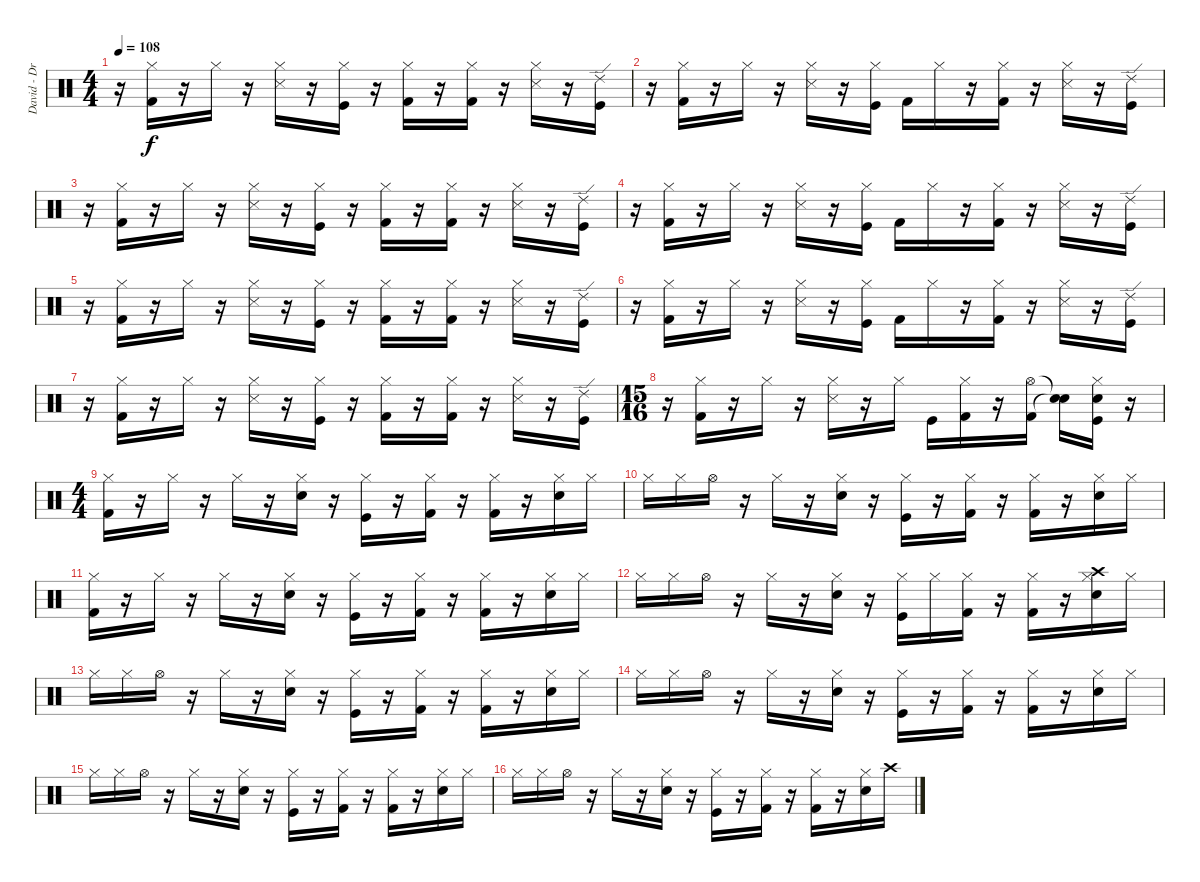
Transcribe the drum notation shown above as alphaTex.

\track ("David - Drums" "David - Dr") {instrument percussion}
\staff {score}
\articulation defaults
\ts (4 4)
\tempo 108
\clef neutral
\ks c
r.16{dy f} ("Hi-Hat (closed)" "Kick (hit) 2").16 r.16 "Hi-Hat (closed)".16 r.16 ("Hi-Hat (closed)" "Snare (side stick) 3").16 r.16 ("Hi-Hat (closed)" "Kick (hit)").16 r.16 ("Hi-Hat (closed)" "Kick (hit) 2").16 r.16 ("Hi-Hat (closed)" "Kick (hit) 2").16 r.16 ("Hi-Hat (closed)" "Snare (side stick) 3").16 r.16 ("Ride (edge) 2" "Kick (hit)").16 |
r.16 ("Hi-Hat (closed)" "Kick (hit) 2").16 r.16 "Hi-Hat (closed)".16 r.16 ("Hi-Hat (closed)" "Snare (side stick) 3").16 r.16 ("Hi-Hat (closed)" "Kick (hit)").16 "Kick (hit) 2".16 "Hi-Hat (closed)".16 r.16 ("Hi-Hat (closed)" "Kick (hit) 2").16 r.16 ("Hi-Hat (closed)" "Snare (side stick) 3").16 r.16 ("Ride (edge) 2" "Kick (hit)").16 |
r.16 ("Hi-Hat (closed)" "Kick (hit) 2").16 r.16 "Hi-Hat (closed)".16 r.16 ("Hi-Hat (closed)" "Snare (side stick) 3").16 r.16 ("Hi-Hat (closed)" "Kick (hit)").16 r.16 ("Hi-Hat (closed)" "Kick (hit) 2").16 r.16 ("Hi-Hat (closed)" "Kick (hit) 2").16 r.16 ("Hi-Hat (closed)" "Snare (side stick) 3").16 r.16 ("Ride (edge) 2" "Kick (hit)").16 |
r.16 ("Hi-Hat (closed)" "Kick (hit) 2").16 r.16 "Hi-Hat (closed)".16 r.16 ("Hi-Hat (closed)" "Snare (side stick) 3").16 r.16 ("Hi-Hat (closed)" "Kick (hit)").16 "Kick (hit) 2".16 "Hi-Hat (closed)".16 r.16 ("Hi-Hat (closed)" "Kick (hit) 2").16 r.16 ("Hi-Hat (closed)" "Snare (side stick) 3").16 r.16 ("Ride (edge) 2" "Kick (hit)").16 |
r.16 ("Hi-Hat (closed)" "Kick (hit) 2").16 r.16 "Hi-Hat (closed)".16 r.16 ("Hi-Hat (closed)" "Snare (side stick) 3").16 r.16 ("Hi-Hat (closed)" "Kick (hit)").16 r.16 ("Hi-Hat (closed)" "Kick (hit) 2").16 r.16 ("Hi-Hat (closed)" "Kick (hit) 2").16 r.16 ("Hi-Hat (closed)" "Snare (side stick) 3").16 r.16 ("Ride (edge) 2" "Kick (hit)").16 |
r.16 ("Hi-Hat (closed)" "Kick (hit) 2").16 r.16 "Hi-Hat (closed)".16 r.16 ("Hi-Hat (closed)" "Snare (side stick) 3").16 r.16 ("Hi-Hat (closed)" "Kick (hit)").16 "Kick (hit) 2".16 "Hi-Hat (closed)".16 r.16 ("Hi-Hat (closed)" "Kick (hit) 2").16 r.16 ("Hi-Hat (closed)" "Snare (side stick) 3").16 r.16 ("Ride (edge) 2" "Kick (hit)").16 |
r.16 ("Hi-Hat (closed)" "Kick (hit) 2").16 r.16 "Hi-Hat (closed)".16 r.16 ("Hi-Hat (closed)" "Snare (side stick) 3").16 r.16 ("Hi-Hat (closed)" "Kick (hit)").16 r.16 ("Hi-Hat (closed)" "Kick (hit) 2").16 r.16 ("Hi-Hat (closed)" "Kick (hit) 2").16 r.16 ("Hi-Hat (closed)" "Snare (side stick) 3").16 r.16 ("Ride (edge) 2" "Kick (hit)").16 |
\ts (15 16)
r.16 ("Hi-Hat (closed)" "Kick (hit) 2").16 r.16 "Hi-Hat (closed)".16 r.16 ("Hi-Hat (closed)" "Snare (side stick) 3").16 r.16 "Hi-Hat (closed)".16 "Kick (hit)".16 ("Hi-Hat (closed)" "Kick (hit) 2").16 r.16 ("Hi-Hat (open)" "Kick (hit) 2").16 ("Snare (hit)"{t} "Snare (hit)"{t}).16 ("Hi-Hat (closed)" "Snare (hit) 2" "Kick (hit)").16 r.16 |
\ts (4 4)
("Hi-Hat (closed)" "Kick (hit) 2").16 r.16 "Hi-Hat (closed)".16 r.16 "Hi-Hat (closed)".16 r.16 ("Hi-Hat (closed)" "Snare (hit) 2").16 r.16 ("Hi-Hat (closed)" "Kick (hit)").16 r.16 ("Hi-Hat (closed)" "Kick (hit) 2").16 r.16 ("Hi-Hat (closed)" "Kick (hit) 2").16 r.16 ("Hi-Hat (closed)" "Snare (hit) 2").16 "Hi-Hat (closed)".16 |
"Hi-Hat (closed)".16 "Hi-Hat (closed)".16 "Hi-Hat (open)".16 r.16 "Hi-Hat (closed)".16 r.16 ("Hi-Hat (closed)" "Snare (hit) 2").16 r.16 ("Hi-Hat (closed)" "Kick (hit)").16 r.16 ("Hi-Hat (closed)" "Kick (hit) 2").16 r.16 ("Hi-Hat (closed)" "Kick (hit) 2").16 r.16 ("Hi-Hat (closed)" "Snare (hit) 2").16 "Hi-Hat (closed)".16 |
("Hi-Hat (closed)" "Kick (hit) 2").16 r.16 "Hi-Hat (closed)".16 r.16 "Hi-Hat (closed)".16 r.16 ("Hi-Hat (closed)" "Snare (hit) 2").16 r.16 ("Hi-Hat (closed)" "Kick (hit)").16 r.16 ("Hi-Hat (closed)" "Kick (hit) 2").16 r.16 ("Hi-Hat (closed)" "Kick (hit) 2").16 r.16 ("Hi-Hat (closed)" "Snare (hit) 2").16 "Hi-Hat (closed)".16 |
"Hi-Hat (closed)".16 "Hi-Hat (closed)".16 "Hi-Hat (open)".16 r.16 "Hi-Hat (closed)".16 r.16 ("Hi-Hat (closed)" "Snare (hit) 2").16 r.16 ("Hi-Hat (closed)" "Kick (hit)").16 "Hi-Hat (closed)".16 ("Hi-Hat (closed)" "Kick (hit) 2").16 r.16 ("Hi-Hat (closed)" "Kick (hit) 2").16 r.16 ("Crash high (hit)" "Hi-Hat (closed)" "Snare (hit) 2").16 "Hi-Hat (closed)".16 |
"Hi-Hat (closed)".16 "Hi-Hat (closed)".16 "Hi-Hat (open)".16 r.16 "Hi-Hat (closed)".16 r.16 ("Hi-Hat (closed)" "Snare (hit) 2").16 r.16 ("Hi-Hat (closed)" "Kick (hit)").16 r.16 ("Hi-Hat (closed)" "Kick (hit) 2").16 r.16 ("Hi-Hat (closed)" "Kick (hit) 2").16 r.16 ("Hi-Hat (closed)" "Snare (hit) 2").16 "Hi-Hat (closed)".16 |
"Hi-Hat (closed)".16 "Hi-Hat (closed)".16 "Hi-Hat (open)".16 r.16 "Hi-Hat (closed)".16 r.16 ("Hi-Hat (closed)" "Snare (hit) 2").16 r.16 ("Hi-Hat (closed)" "Kick (hit)").16 r.16 ("Hi-Hat (closed)" "Kick (hit) 2").16 r.16 ("Hi-Hat (closed)" "Kick (hit) 2").16 r.16 ("Hi-Hat (closed)" "Snare (hit) 2").16 "Hi-Hat (closed)".16 |
"Hi-Hat (closed)".16 "Hi-Hat (closed)".16 "Hi-Hat (open)".16 r.16 "Hi-Hat (closed)".16 r.16 ("Hi-Hat (closed)" "Snare (hit) 2").16 r.16 ("Hi-Hat (closed)" "Kick (hit)").16 r.16 ("Hi-Hat (closed)" "Kick (hit) 2").16 r.16 ("Hi-Hat (closed)" "Kick (hit) 2").16 r.16 ("Hi-Hat (closed)" "Snare (hit) 2").16 "Hi-Hat (closed)".16 |
"Hi-Hat (closed)".16 "Hi-Hat (closed)".16 "Hi-Hat (open)".16 r.16 "Hi-Hat (closed)".16 r.16 ("Hi-Hat (closed)" "Snare (hit) 2").16 r.16 ("Hi-Hat (closed)" "Kick (hit)").16 r.16 ("Hi-Hat (closed)" "Kick (hit) 2").16 r.16 ("Hi-Hat (closed)" "Kick (hit) 2").16 r.16 ("Hi-Hat (closed)" "Snare (hit) 2").16 "Crash high (hit)".16
